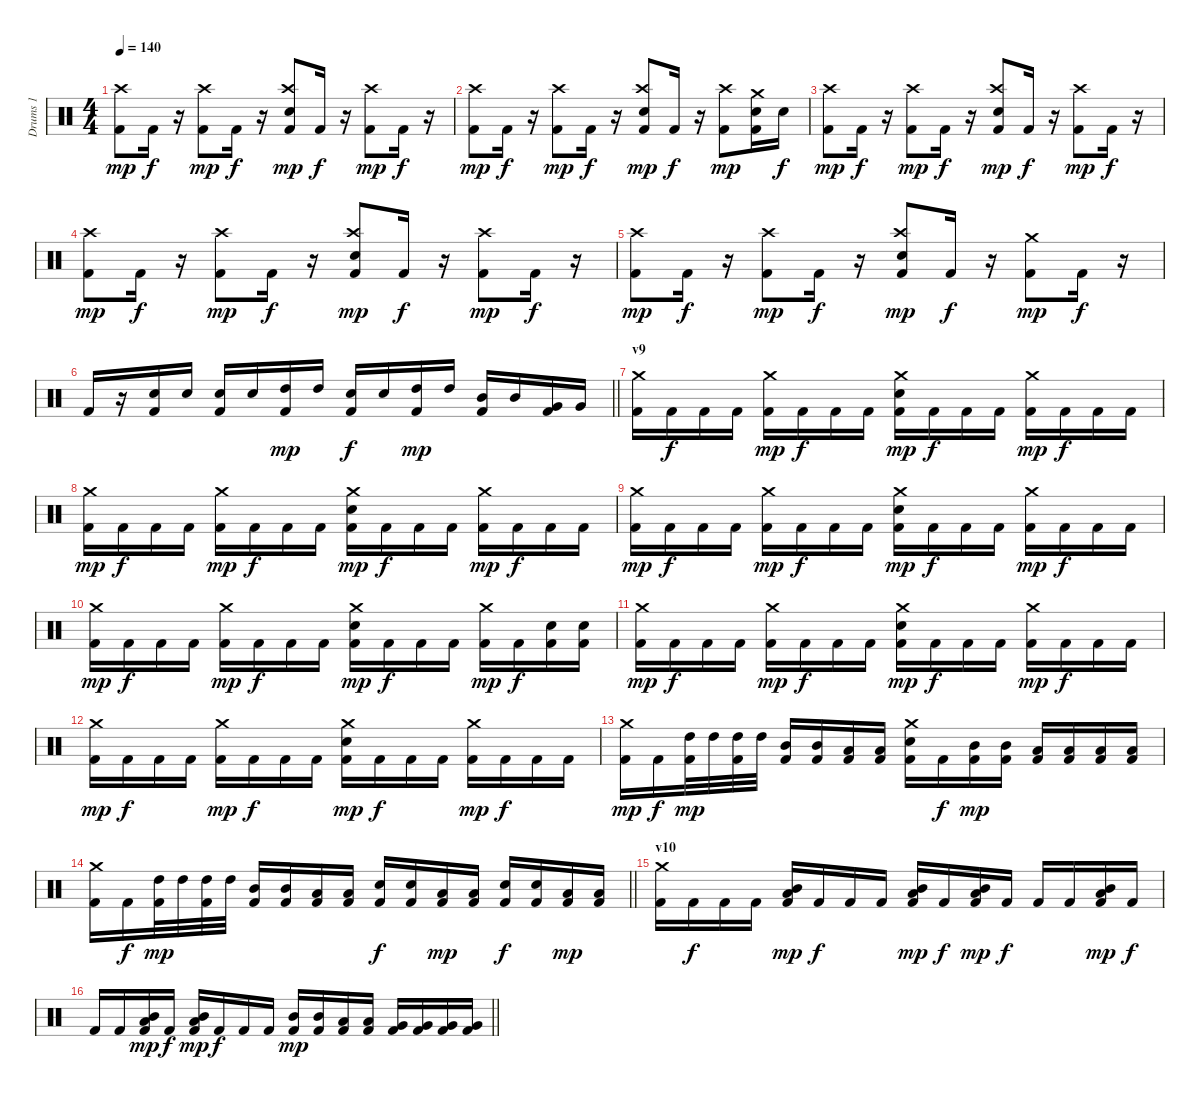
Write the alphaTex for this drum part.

\track ("Drums 1" "Drums 1") {instrument percussion}
\staff {score}
\articulation defaults
\ts (4 4)
\tempo 140
\clef neutral
\ks c
("Kick (hit) 2" "Crash high (hit)").8{dy mp} "Kick (hit) 2".16{dy f} r.16 ("Crash high (hit)" "Kick (hit) 2").8{dy mp} "Kick (hit) 2".16{dy f} r.16 ("Kick (hit) 2" "Snare (hit) 2" "Crash high (hit)").8{dy mp} "Kick (hit) 2".16{dy f} r.16 ("Crash high (hit)" "Kick (hit) 2").8{dy mp} "Kick (hit) 2".16{dy f} r.16 |
("Kick (hit) 2" "Crash high (hit)").8{dy mp} "Kick (hit) 2".16{dy f} r.16 ("Crash high (hit)" "Kick (hit) 2").8{dy mp} "Kick (hit) 2".16{dy f} r.16 ("Kick (hit) 2" "Snare (hit) 2" "Crash high (hit)").8{dy mp} "Kick (hit) 2".16{dy f} r.16 ("Crash high (hit)" "Kick (hit) 2").8{dy mp} ("Kick (hit) 2" "Snare (hit) 2" "Crash medium (hit)").16 "Snare (hit) 2".16{dy f} |
("Kick (hit) 2" "Crash high (hit)").8{dy mp} "Kick (hit) 2".16{dy f} r.16 ("Crash high (hit)" "Kick (hit) 2").8{dy mp} "Kick (hit) 2".16{dy f} r.16 ("Crash high (hit)" "Snare (hit) 2" "Kick (hit) 2").8{dy mp} "Kick (hit) 2".16{dy f} r.16 ("Kick (hit) 2" "Crash high (hit)").8{dy mp} "Kick (hit) 2".16{dy f} r.16 |
("Crash high (hit)" "Kick (hit) 2").8{dy mp} "Kick (hit) 2".16{dy f} r.16 ("Crash high (hit)" "Kick (hit) 2").8{dy mp} "Kick (hit) 2".16{dy f} r.16 ("Crash high (hit)" "Snare (hit) 2" "Kick (hit) 2").8{dy mp} "Kick (hit) 2".16{dy f} r.16 ("Crash high (hit)" "Kick (hit) 2").8{dy mp} "Kick (hit) 2".16{dy f} r.16 |
("Crash high (hit)" "Kick (hit) 2").8{dy mp} "Kick (hit) 2".16{dy f} r.16 ("Crash high (hit)" "Kick (hit) 2").8{dy mp} "Kick (hit) 2".16{dy f} r.16 ("Crash high (hit)" "Snare (hit) 2" "Kick (hit) 2").8{dy mp} "Kick (hit) 2".16{dy f} r.16 ("Kick (hit) 2" "Crash medium (hit)").8{dy mp} "Kick (hit) 2".16{dy f} r.16 |
\barLineRight lightlight "Kick (hit) 2".16
r.16 ("Kick (hit) 2" "Snare (hit) 2").16 "Snare (hit) 2".16 ("Snare (hit) 2" "Kick (hit) 2").16 "Snare (hit) 2".16 ("High Tom (hit)" "Kick (hit) 2").16{dy mp} "High Tom (hit)".16 ("Kick (hit) 2" "Snare (hit) 2").16{dy f} "Snare (hit) 2".16 ("Kick (hit) 2" "High Tom (hit)").16{dy mp} "High Tom (hit)".16 ("Kick (hit) 2" "Mid Tom (hit)").16 "Mid Tom (hit)".16 ("Kick (hit) 2" "Very Low Tom (hit)").16 "Very Low Tom (hit)".16 |
\section ("" "v9")
("Kick (hit) 2" "Crash medium (hit)").16 "Kick (hit) 2".16{dy f} "Kick (hit) 2".16 "Kick (hit) 2".16 ("Kick (hit) 2" "Crash medium (hit)").16{dy mp} "Kick (hit) 2".16{dy f} "Kick (hit) 2".16 "Kick (hit) 2".16 ("Kick (hit) 2" "Snare (hit) 2" "Crash medium (hit)").16{dy mp} "Kick (hit) 2".16{dy f} "Kick (hit) 2".16 "Kick (hit) 2".16 ("Kick (hit) 2" "Crash medium (hit)").16{dy mp} "Kick (hit) 2".16{dy f} "Kick (hit) 2".16 "Kick (hit) 2".16 |
("Kick (hit) 2" "Crash medium (hit)").16{dy mp} "Kick (hit) 2".16{dy f} "Kick (hit) 2".16 "Kick (hit) 2".16 ("Kick (hit) 2" "Crash medium (hit)").16{dy mp} "Kick (hit) 2".16{dy f} "Kick (hit) 2".16 "Kick (hit) 2".16 ("Kick (hit) 2" "Snare (hit) 2" "Crash medium (hit)").16{dy mp} "Kick (hit) 2".16{dy f} "Kick (hit) 2".16 "Kick (hit) 2".16 ("Kick (hit) 2" "Crash medium (hit)").16{dy mp} "Kick (hit) 2".16{dy f} "Kick (hit) 2".16 "Kick (hit) 2".16 |
("Kick (hit) 2" "Crash medium (hit)").16{dy mp} "Kick (hit) 2".16{dy f} "Kick (hit) 2".16 "Kick (hit) 2".16 ("Kick (hit) 2" "Crash medium (hit)").16{dy mp} "Kick (hit) 2".16{dy f} "Kick (hit) 2".16 "Kick (hit) 2".16 ("Kick (hit) 2" "Snare (hit) 2" "Crash medium (hit)").16{dy mp} "Kick (hit) 2".16{dy f} "Kick (hit) 2".16 "Kick (hit) 2".16 ("Kick (hit) 2" "Crash medium (hit)").16{dy mp} "Kick (hit) 2".16{dy f} "Kick (hit) 2".16 "Kick (hit) 2".16 |
("Kick (hit) 2" "Crash medium (hit)").16{dy mp} "Kick (hit) 2".16{dy f} "Kick (hit) 2".16 "Kick (hit) 2".16 ("Kick (hit) 2" "Crash medium (hit)").16{dy mp} "Kick (hit) 2".16{dy f} "Kick (hit) 2".16 "Kick (hit) 2".16 ("Kick (hit) 2" "Snare (hit) 2" "Crash medium (hit)").16{dy mp} "Kick (hit) 2".16{dy f} "Kick (hit) 2".16 "Kick (hit) 2".16 ("Kick (hit) 2" "Crash medium (hit)").16{dy mp} "Kick (hit) 2".16{dy f} ("Kick (hit) 2" "Snare (hit) 2").16 ("Snare (hit) 2" "Kick (hit) 2").16 |
("Kick (hit) 2" "Crash medium (hit)").16{dy mp} "Kick (hit) 2".16{dy f} "Kick (hit) 2".16 "Kick (hit) 2".16 ("Kick (hit) 2" "Crash medium (hit)").16{dy mp} "Kick (hit) 2".16{dy f} "Kick (hit) 2".16 "Kick (hit) 2".16 ("Snare (hit) 2" "Kick (hit) 2" "Crash medium (hit)").16{dy mp} "Kick (hit) 2".16{dy f} "Kick (hit) 2".16 "Kick (hit) 2".16 ("Crash medium (hit)" "Kick (hit) 2").16{dy mp} "Kick (hit) 2".16{dy f} "Kick (hit) 2".16 "Kick (hit) 2".16 |
("Crash medium (hit)" "Kick (hit) 2").16{dy mp} "Kick (hit) 2".16{dy f} "Kick (hit) 2".16 "Kick (hit) 2".16 ("Crash medium (hit)" "Kick (hit) 2").16{dy mp} "Kick (hit) 2".16{dy f} "Kick (hit) 2".16 "Kick (hit) 2".16 ("Crash medium (hit)" "Kick (hit) 2" "Snare (hit) 2").16{dy mp} "Kick (hit) 2".16{dy f} "Kick (hit) 2".16 "Kick (hit) 2".16 ("Crash medium (hit)" "Kick (hit) 2").16{dy mp} "Kick (hit) 2".16{dy f} "Kick (hit) 2".16 "Kick (hit) 2".16 |
("Crash medium (hit)" "Kick (hit) 2").16{dy mp} "Kick (hit) 2".16{dy f} ("Kick (hit) 2" "High Tom (hit)").32{dy mp} "High Tom (hit)".32 ("Kick (hit) 2" "High Tom (hit)").32 "High Tom (hit)".32 ("Kick (hit) 2" "Mid Tom (hit)").16 ("Mid Tom (hit)" "Kick (hit) 2").16 ("Kick (hit) 2" "Low Tom (hit)").16 ("Low Tom (hit)" "Kick (hit) 2").16 ("Crash medium (hit)" "Kick (hit) 2" "Snare (hit) 2").16 "Kick (hit) 2".16{dy f} ("Mid Tom (hit)" "Kick (hit) 2").16{dy mp} ("Mid Tom (hit)" "Kick (hit) 2").16 ("Low Tom (hit)" "Kick (hit) 2").16 ("Low Tom (hit)" "Kick (hit) 2").16 ("Low Tom (hit)" "Kick (hit) 2").16 ("Low Tom (hit)" "Kick (hit) 2").16 |
\barLineRight lightlight
("Crash medium (hit)" "Kick (hit) 2").16 "Kick (hit) 2".16{dy f} ("High Tom (hit)" "Kick (hit) 2").32{dy mp} "High Tom (hit)".32 ("High Tom (hit)" "Kick (hit) 2").32 "High Tom (hit)".32 ("Mid Tom (hit)" "Kick (hit) 2").16 ("Mid Tom (hit)" "Kick (hit) 2").16 ("Low Tom (hit)" "Kick (hit) 2").16 ("Low Tom (hit)" "Kick (hit) 2").16 ("Kick (hit) 2" "Snare (hit) 2").16{dy f} ("Snare (hit) 2" "Kick (hit) 2").16 ("Low Tom (hit)" "Kick (hit) 2").16{dy mp} ("Low Tom (hit)" "Kick (hit) 2").16 ("Kick (hit) 2" "Snare (hit) 2").16{dy f} ("Snare (hit) 2" "Kick (hit) 2").16 ("Low Tom (hit)" "Kick (hit) 2").16{dy mp} ("Low Tom (hit)" "Kick (hit) 2").16 |
\section ("" "v10")
("Crash medium (hit)" "Kick (hit) 2").16 "Kick (hit) 2".16{dy f} "Kick (hit) 2".16 "Kick (hit) 2".16 ("Low Tom (hit)" "Kick (hit) 2" "Mid Tom (hit)").16{dy mp} "Kick (hit) 2".16{dy f} "Kick (hit) 2".16 "Kick (hit) 2".16 ("Low Tom (hit)" "Mid Tom (hit)" "Kick (hit) 2").16{dy mp} "Kick (hit) 2".16{dy f} ("Low Tom (hit)" "Kick (hit) 2" "Mid Tom (hit)").16{dy mp} "Kick (hit) 2".16{dy f} "Kick (hit) 2".16 "Kick (hit) 2".16 ("Low Tom (hit)" "Mid Tom (hit)" "Kick (hit) 2").16{dy mp} "Kick (hit) 2".16{dy f} |
\barLineRight lightlight "Kick (hit) 2".16 "Kick (hit) 2".16
("Low Tom (hit)" "Kick (hit) 2" "Mid Tom (hit)").16{dy mp} "Kick (hit) 2".16{dy f} ("Low Tom (hit)" "Mid Tom (hit)" "Kick (hit) 2").16{dy mp} "Kick (hit) 2".16{dy f} "Kick (hit) 2".16 "Kick (hit) 2".16 ("Kick (hit) 2" "Mid Tom (hit)").16{dy mp} ("Kick (hit) 2" "Mid Tom (hit)").16 ("Kick (hit) 2" "Low Tom (hit)").16 ("Kick (hit) 2" "Low Tom (hit)").16 ("Kick (hit) 2" "Very Low Tom (hit)").16 ("Kick (hit) 2" "Very Low Tom (hit)").16 ("Kick (hit) 2" "Very Low Tom (hit)").16 ("Kick (hit) 2" "Very Low Tom (hit)").16
